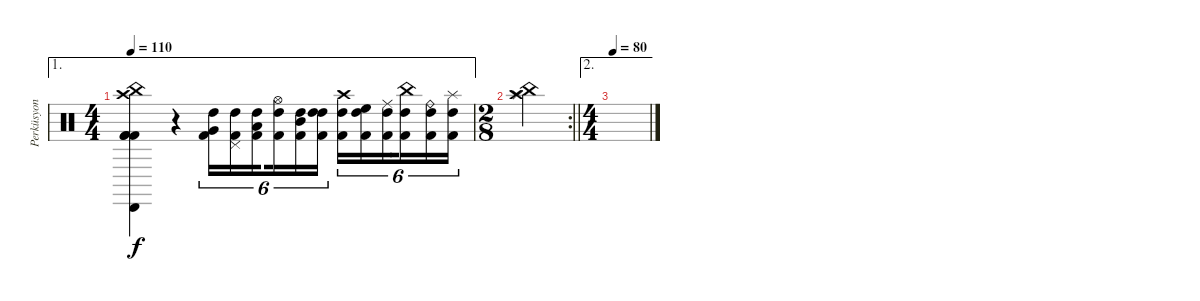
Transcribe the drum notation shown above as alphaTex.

\track ("Perküsyon" "Perküsyon") {instrument percussion}
\staff {score}
\articulation defaults
\ae 1
\ts (4 4)
\tempo 110
\clef neutral
\ks c
("Kick (hit) 2" "Kick (hit) 2" "Cabasa (hit)" "Kick (hit) 2" "Crash high (hit)" "China (hit)").4{dy f} r.4 ("Very Low Tom (hit)" "High Tom (hit)" "Kick (hit) 2").16{tu (6 4)} ("Pedal Hi-Hat (hit)" "High Tom (hit)" "Kick (hit) 2").16{tu (6 4)} ("Low Tom (hit)" "High Tom (hit)" "Kick (hit) 2").16{tu (6 4) beam splitsecondary} ("Hi-Hat (open)" "High Tom (hit)" "Kick (hit) 2").16{tu (6 4)} ("Mid Tom (hit)" "High Tom (hit)" "Kick (hit) 2").16{tu (6 4)} ("High Tom (hit)" "High Tom (hit)" "Kick (hit) 2").16{tu (6 4)} ("Crash high (hit)" "High Tom (hit)" "Kick (hit) 2").16{tu (6 4)} ("High Floor Tom (hit)" "High Tom (hit)" "Kick (hit) 2").16{tu (6 4)} ("Ride (middle)" "High Tom (hit)" "Kick (hit) 2").16{tu (6 4) beam splitsecondary} ("China (hit)" "High Tom (hit)" "Kick (hit) 2").16{tu (6 4)} ("Ride (bell)" "High Tom (hit)" "Kick (hit) 2").16{tu (6 4)} ("Splash (hit)" "High Tom (hit)" "Kick (hit) 2").16{tu (6 4)} |
\rc 2
\ts (2 8)
\barLineRight lightlight
("Splash (hit)" "Crash high (hit)" "China (hit)").4 |
\ae 2
\ts (4 4)
\tempo 80
